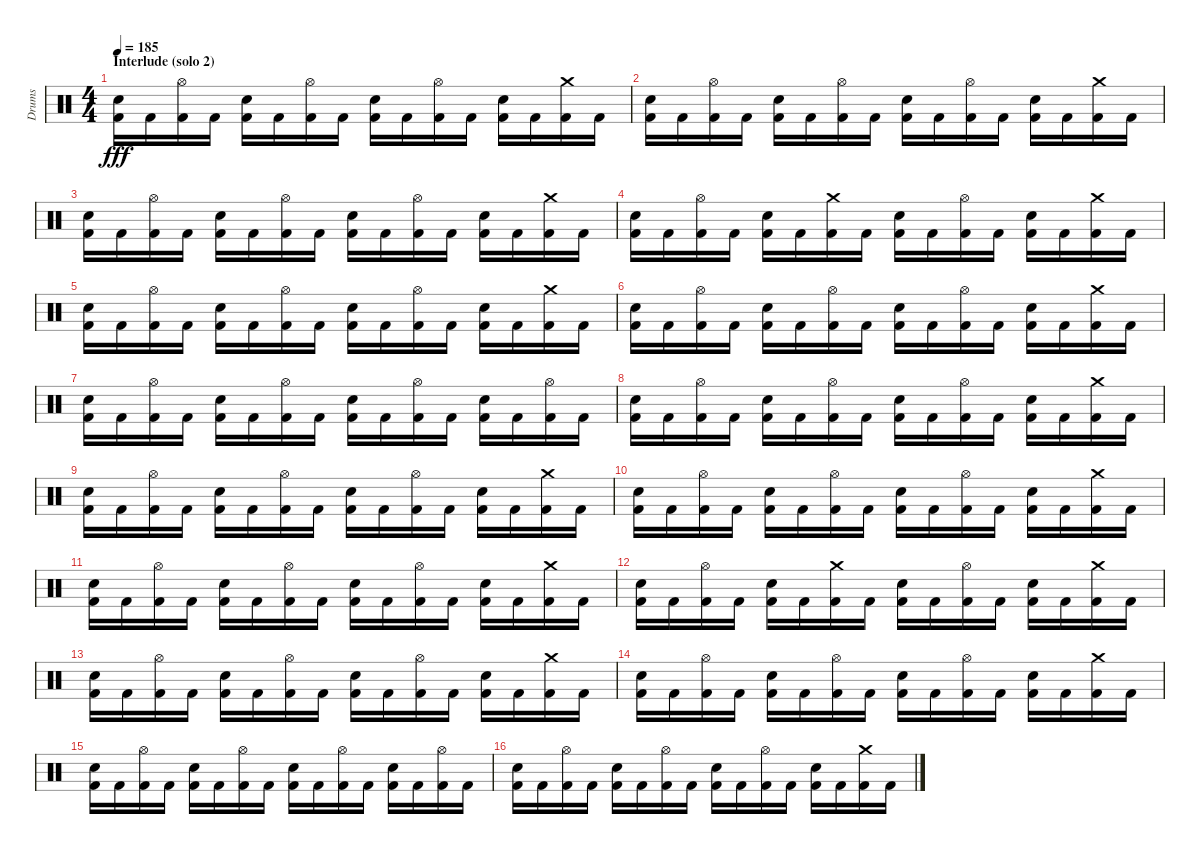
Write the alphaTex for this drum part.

\track ("Drums" "Drums") {instrument percussion}
\staff {score}
\articulation defaults
\ts (4 4)
\section ("" "Interlude (solo 2)")
\tempo 185
\clef neutral
\ks c
("Electric Snare (hit)" "Kick (hit) 2").16{dy fff} "Kick (hit) 2".16 ("Hi-Hat (open)" "Kick (hit) 2").16 "Kick (hit) 2".16 ("Electric Snare (hit)" "Kick (hit) 2").16 "Kick (hit) 2".16 ("Hi-Hat (open)" "Kick (hit) 2").16 "Kick (hit) 2".16 ("Electric Snare (hit)" "Kick (hit) 2").16 "Kick (hit) 2".16 ("Hi-Hat (open)" "Kick (hit) 2").16 "Kick (hit) 2".16 ("Electric Snare (hit)" "Kick (hit) 2").16 "Kick (hit) 2".16 ("Crash medium (hit)" "Kick (hit) 2").16 "Kick (hit) 2".16 |
("Electric Snare (hit)" "Kick (hit) 2").16 "Kick (hit) 2".16 ("Hi-Hat (open)" "Kick (hit) 2").16 "Kick (hit) 2".16 ("Electric Snare (hit)" "Kick (hit) 2").16 "Kick (hit) 2".16 ("Hi-Hat (open)" "Kick (hit) 2").16 "Kick (hit) 2".16 ("Electric Snare (hit)" "Kick (hit) 2").16 "Kick (hit) 2".16 ("Hi-Hat (open)" "Kick (hit) 2").16 "Kick (hit) 2".16 ("Electric Snare (hit)" "Kick (hit) 2").16 "Kick (hit) 2".16 ("Crash medium (hit)" "Kick (hit) 2").16 "Kick (hit) 2".16 |
("Electric Snare (hit)" "Kick (hit) 2").16 "Kick (hit) 2".16 ("Hi-Hat (open)" "Kick (hit) 2").16 "Kick (hit) 2".16 ("Electric Snare (hit)" "Kick (hit) 2").16 "Kick (hit) 2".16 ("Hi-Hat (open)" "Kick (hit) 2").16 "Kick (hit) 2".16 ("Electric Snare (hit)" "Kick (hit) 2").16 "Kick (hit) 2".16 ("Hi-Hat (open)" "Kick (hit) 2").16 "Kick (hit) 2".16 ("Electric Snare (hit)" "Kick (hit) 2").16 "Kick (hit) 2".16 ("Crash medium (hit)" "Kick (hit) 2").16 "Kick (hit) 2".16 |
("Electric Snare (hit)" "Kick (hit) 2").16 "Kick (hit) 2".16 ("Hi-Hat (open)" "Kick (hit) 2").16 "Kick (hit) 2".16 ("Electric Snare (hit)" "Kick (hit) 2").16 "Kick (hit) 2".16 ("Crash medium (hit)" "Kick (hit) 2").16 "Kick (hit) 2".16 ("Electric Snare (hit)" "Kick (hit) 2").16 "Kick (hit) 2".16 ("Hi-Hat (open)" "Kick (hit) 2").16 "Kick (hit) 2".16 ("Electric Snare (hit)" "Kick (hit) 2").16 "Kick (hit) 2".16 ("Crash medium (hit)" "Kick (hit) 2").16 "Kick (hit) 2".16 |
("Electric Snare (hit)" "Kick (hit) 2").16 "Kick (hit) 2".16 ("Hi-Hat (open)" "Kick (hit) 2").16 "Kick (hit) 2".16 ("Electric Snare (hit)" "Kick (hit) 2").16 "Kick (hit) 2".16 ("Hi-Hat (open)" "Kick (hit) 2").16 "Kick (hit) 2".16 ("Electric Snare (hit)" "Kick (hit) 2").16 "Kick (hit) 2".16 ("Hi-Hat (open)" "Kick (hit) 2").16 "Kick (hit) 2".16 ("Electric Snare (hit)" "Kick (hit) 2").16 "Kick (hit) 2".16 ("Crash medium (hit)" "Kick (hit) 2").16 "Kick (hit) 2".16 |
("Electric Snare (hit)" "Kick (hit) 2").16 "Kick (hit) 2".16 ("Hi-Hat (open)" "Kick (hit) 2").16 "Kick (hit) 2".16 ("Electric Snare (hit)" "Kick (hit) 2").16 "Kick (hit) 2".16 ("Hi-Hat (open)" "Kick (hit) 2").16 "Kick (hit) 2".16 ("Electric Snare (hit)" "Kick (hit) 2").16 "Kick (hit) 2".16 ("Hi-Hat (open)" "Kick (hit) 2").16 "Kick (hit) 2".16 ("Electric Snare (hit)" "Kick (hit) 2").16 "Kick (hit) 2".16 ("Crash medium (hit)" "Kick (hit) 2").16 "Kick (hit) 2".16 |
("Electric Snare (hit)" "Kick (hit) 2").16 "Kick (hit) 2".16 ("Hi-Hat (open)" "Kick (hit) 2").16 "Kick (hit) 2".16 ("Electric Snare (hit)" "Kick (hit) 2").16 "Kick (hit) 2".16 ("Hi-Hat (open)" "Kick (hit) 2").16 "Kick (hit) 2".16 ("Electric Snare (hit)" "Kick (hit) 2").16 "Kick (hit) 2".16 ("Hi-Hat (open)" "Kick (hit) 2").16 "Kick (hit) 2".16 ("Electric Snare (hit)" "Kick (hit) 2").16 "Kick (hit) 2".16 ("Hi-Hat (open)" "Kick (hit) 2").16 "Kick (hit) 2".16 |
("Electric Snare (hit)" "Kick (hit) 2").16 "Kick (hit) 2".16 ("Hi-Hat (open)" "Kick (hit) 2").16 "Kick (hit) 2".16 ("Electric Snare (hit)" "Kick (hit) 2").16 "Kick (hit) 2".16 ("Hi-Hat (open)" "Kick (hit) 2").16 "Kick (hit) 2".16 ("Electric Snare (hit)" "Kick (hit) 2").16 "Kick (hit) 2".16 ("Hi-Hat (open)" "Kick (hit) 2").16 "Kick (hit) 2".16 ("Electric Snare (hit)" "Kick (hit) 2").16 "Kick (hit) 2".16 ("Crash medium (hit)" "Kick (hit) 2").16 "Kick (hit) 2".16 |
("Electric Snare (hit)" "Kick (hit) 2").16 "Kick (hit) 2".16 ("Hi-Hat (open)" "Kick (hit) 2").16 "Kick (hit) 2".16 ("Electric Snare (hit)" "Kick (hit) 2").16 "Kick (hit) 2".16 ("Hi-Hat (open)" "Kick (hit) 2").16 "Kick (hit) 2".16 ("Electric Snare (hit)" "Kick (hit) 2").16 "Kick (hit) 2".16 ("Hi-Hat (open)" "Kick (hit) 2").16 "Kick (hit) 2".16 ("Electric Snare (hit)" "Kick (hit) 2").16 "Kick (hit) 2".16 ("Crash medium (hit)" "Kick (hit) 2").16 "Kick (hit) 2".16 |
("Electric Snare (hit)" "Kick (hit) 2").16 "Kick (hit) 2".16 ("Hi-Hat (open)" "Kick (hit) 2").16 "Kick (hit) 2".16 ("Electric Snare (hit)" "Kick (hit) 2").16 "Kick (hit) 2".16 ("Hi-Hat (open)" "Kick (hit) 2").16 "Kick (hit) 2".16 ("Electric Snare (hit)" "Kick (hit) 2").16 "Kick (hit) 2".16 ("Hi-Hat (open)" "Kick (hit) 2").16 "Kick (hit) 2".16 ("Electric Snare (hit)" "Kick (hit) 2").16 "Kick (hit) 2".16 ("Crash medium (hit)" "Kick (hit) 2").16 "Kick (hit) 2".16 |
("Electric Snare (hit)" "Kick (hit) 2").16 "Kick (hit) 2".16 ("Hi-Hat (open)" "Kick (hit) 2").16 "Kick (hit) 2".16 ("Electric Snare (hit)" "Kick (hit) 2").16 "Kick (hit) 2".16 ("Hi-Hat (open)" "Kick (hit) 2").16 "Kick (hit) 2".16 ("Electric Snare (hit)" "Kick (hit) 2").16 "Kick (hit) 2".16 ("Hi-Hat (open)" "Kick (hit) 2").16 "Kick (hit) 2".16 ("Electric Snare (hit)" "Kick (hit) 2").16 "Kick (hit) 2".16 ("Crash medium (hit)" "Kick (hit) 2").16 "Kick (hit) 2".16 |
("Electric Snare (hit)" "Kick (hit) 2").16 "Kick (hit) 2".16 ("Hi-Hat (open)" "Kick (hit) 2").16 "Kick (hit) 2".16 ("Electric Snare (hit)" "Kick (hit) 2").16 "Kick (hit) 2".16 ("Crash medium (hit)" "Kick (hit) 2").16 "Kick (hit) 2".16 ("Electric Snare (hit)" "Kick (hit) 2").16 "Kick (hit) 2".16 ("Hi-Hat (open)" "Kick (hit) 2").16 "Kick (hit) 2".16 ("Electric Snare (hit)" "Kick (hit) 2").16 "Kick (hit) 2".16 ("Crash medium (hit)" "Kick (hit) 2").16 "Kick (hit) 2".16 |
("Electric Snare (hit)" "Kick (hit) 2").16 "Kick (hit) 2".16 ("Hi-Hat (open)" "Kick (hit) 2").16 "Kick (hit) 2".16 ("Electric Snare (hit)" "Kick (hit) 2").16 "Kick (hit) 2".16 ("Hi-Hat (open)" "Kick (hit) 2").16 "Kick (hit) 2".16 ("Electric Snare (hit)" "Kick (hit) 2").16 "Kick (hit) 2".16 ("Hi-Hat (open)" "Kick (hit) 2").16 "Kick (hit) 2".16 ("Electric Snare (hit)" "Kick (hit) 2").16 "Kick (hit) 2".16 ("Crash medium (hit)" "Kick (hit) 2").16 "Kick (hit) 2".16 |
("Electric Snare (hit)" "Kick (hit) 2").16 "Kick (hit) 2".16 ("Hi-Hat (open)" "Kick (hit) 2").16 "Kick (hit) 2".16 ("Electric Snare (hit)" "Kick (hit) 2").16 "Kick (hit) 2".16 ("Hi-Hat (open)" "Kick (hit) 2").16 "Kick (hit) 2".16 ("Electric Snare (hit)" "Kick (hit) 2").16 "Kick (hit) 2".16 ("Hi-Hat (open)" "Kick (hit) 2").16 "Kick (hit) 2".16 ("Electric Snare (hit)" "Kick (hit) 2").16 "Kick (hit) 2".16 ("Crash medium (hit)" "Kick (hit) 2").16 "Kick (hit) 2".16 |
("Electric Snare (hit)" "Kick (hit) 2").16 "Kick (hit) 2".16 ("Hi-Hat (open)" "Kick (hit) 2").16 "Kick (hit) 2".16 ("Electric Snare (hit)" "Kick (hit) 2").16 "Kick (hit) 2".16 ("Hi-Hat (open)" "Kick (hit) 2").16 "Kick (hit) 2".16 ("Electric Snare (hit)" "Kick (hit) 2").16 "Kick (hit) 2".16 ("Hi-Hat (open)" "Kick (hit) 2").16 "Kick (hit) 2".16 ("Electric Snare (hit)" "Kick (hit) 2").16 "Kick (hit) 2".16 ("Hi-Hat (open)" "Kick (hit) 2").16 "Kick (hit) 2".16 |
("Electric Snare (hit)" "Kick (hit) 2").16 "Kick (hit) 2".16 ("Hi-Hat (open)" "Kick (hit) 2").16 "Kick (hit) 2".16 ("Electric Snare (hit)" "Kick (hit) 2").16 "Kick (hit) 2".16 ("Hi-Hat (open)" "Kick (hit) 2").16 "Kick (hit) 2".16 ("Electric Snare (hit)" "Kick (hit) 2").16 "Kick (hit) 2".16 ("Hi-Hat (open)" "Kick (hit) 2").16 "Kick (hit) 2".16 ("Electric Snare (hit)" "Kick (hit) 2").16 "Kick (hit) 2".16 ("Crash medium (hit)" "Kick (hit) 2").16 "Kick (hit) 2".16
